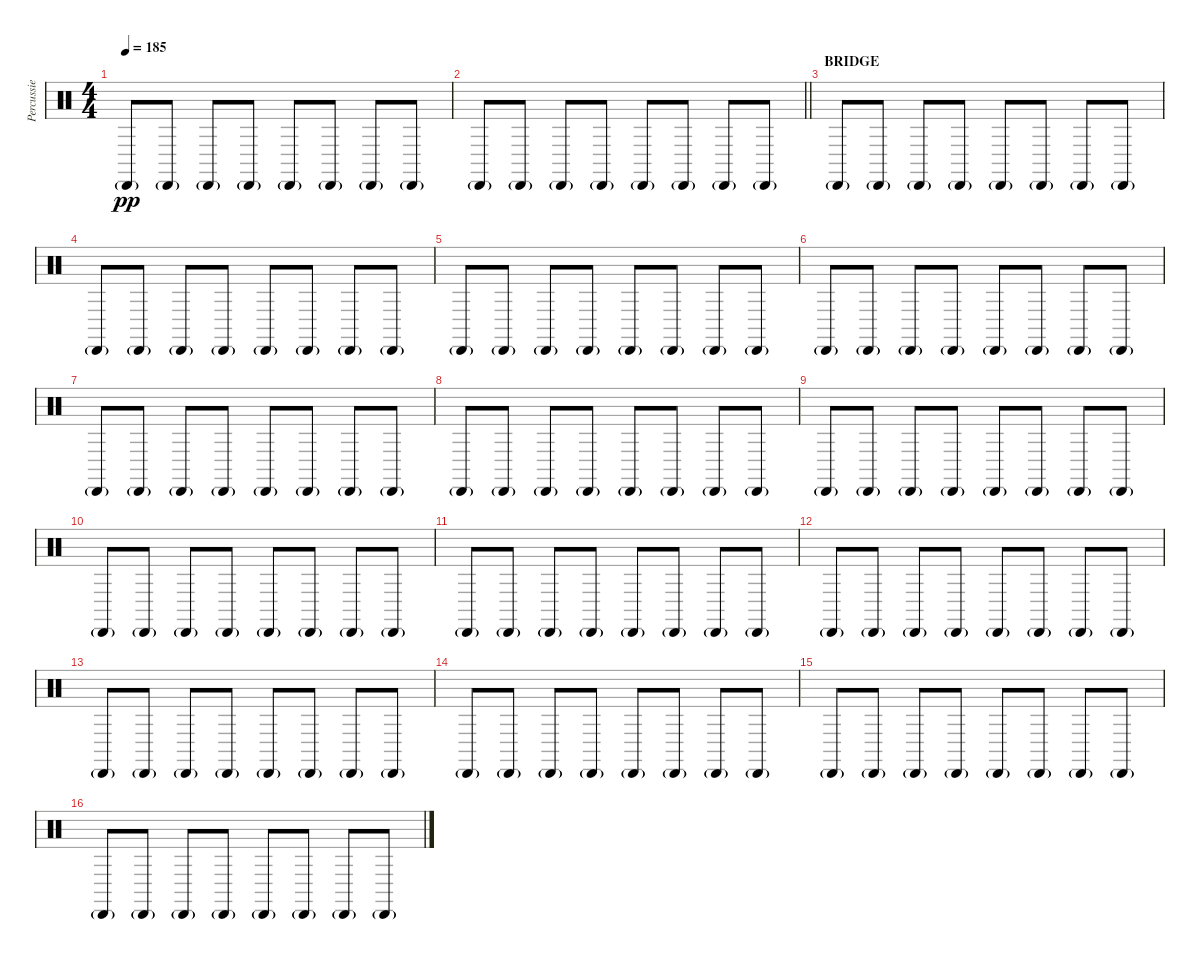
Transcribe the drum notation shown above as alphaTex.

\track ("Percussie" "Percussie") {instrument percussion}
\staff {score}
\articulation defaults
\ts (4 4)
\tempo 185
\clef neutral
\ks c "Cabasa (hit)"{g}.8{dy pp} "Cabasa (hit)"{g}.8 "Cabasa (hit)"{g}.8 "Cabasa (hit)"{g}.8 "Cabasa (hit)"{g}.8 "Cabasa (hit)"{g}.8 "Cabasa (hit)"{g}.8 "Cabasa (hit)"{g}.8
|
\barLineRight lightlight "Cabasa (hit)"{g}.8 "Cabasa (hit)"{g}.8 "Cabasa (hit)"{g}.8 "Cabasa (hit)"{g}.8 "Cabasa (hit)"{g}.8 "Cabasa (hit)"{g}.8 "Cabasa (hit)"{g}.8 "Cabasa (hit)"{g}.8
|
\section ("" "BRIDGE")
"Cabasa (hit)"{g}.8 "Cabasa (hit)"{g}.8 "Cabasa (hit)"{g}.8 "Cabasa (hit)"{g}.8 "Cabasa (hit)"{g}.8 "Cabasa (hit)"{g}.8 "Cabasa (hit)"{g}.8 "Cabasa (hit)"{g}.8 |
"Cabasa (hit)"{g}.8 "Cabasa (hit)"{g}.8 "Cabasa (hit)"{g}.8 "Cabasa (hit)"{g}.8 "Cabasa (hit)"{g}.8 "Cabasa (hit)"{g}.8 "Cabasa (hit)"{g}.8 "Cabasa (hit)"{g}.8 |
"Cabasa (hit)"{g}.8 "Cabasa (hit)"{g}.8 "Cabasa (hit)"{g}.8 "Cabasa (hit)"{g}.8 "Cabasa (hit)"{g}.8 "Cabasa (hit)"{g}.8 "Cabasa (hit)"{g}.8 "Cabasa (hit)"{g}.8 |
"Cabasa (hit)"{g}.8 "Cabasa (hit)"{g}.8 "Cabasa (hit)"{g}.8 "Cabasa (hit)"{g}.8 "Cabasa (hit)"{g}.8 "Cabasa (hit)"{g}.8 "Cabasa (hit)"{g}.8 "Cabasa (hit)"{g}.8 |
"Cabasa (hit)"{g}.8 "Cabasa (hit)"{g}.8 "Cabasa (hit)"{g}.8 "Cabasa (hit)"{g}.8 "Cabasa (hit)"{g}.8 "Cabasa (hit)"{g}.8 "Cabasa (hit)"{g}.8 "Cabasa (hit)"{g}.8 |
"Cabasa (hit)"{g}.8 "Cabasa (hit)"{g}.8 "Cabasa (hit)"{g}.8 "Cabasa (hit)"{g}.8 "Cabasa (hit)"{g}.8 "Cabasa (hit)"{g}.8 "Cabasa (hit)"{g}.8 "Cabasa (hit)"{g}.8 |
"Cabasa (hit)"{g}.8 "Cabasa (hit)"{g}.8 "Cabasa (hit)"{g}.8 "Cabasa (hit)"{g}.8 "Cabasa (hit)"{g}.8 "Cabasa (hit)"{g}.8 "Cabasa (hit)"{g}.8 "Cabasa (hit)"{g}.8 |
"Cabasa (hit)"{g}.8 "Cabasa (hit)"{g}.8 "Cabasa (hit)"{g}.8 "Cabasa (hit)"{g}.8 "Cabasa (hit)"{g}.8 "Cabasa (hit)"{g}.8 "Cabasa (hit)"{g}.8 "Cabasa (hit)"{g}.8 |
"Cabasa (hit)"{g}.8 "Cabasa (hit)"{g}.8 "Cabasa (hit)"{g}.8 "Cabasa (hit)"{g}.8 "Cabasa (hit)"{g}.8 "Cabasa (hit)"{g}.8 "Cabasa (hit)"{g}.8 "Cabasa (hit)"{g}.8 |
"Cabasa (hit)"{g}.8 "Cabasa (hit)"{g}.8 "Cabasa (hit)"{g}.8 "Cabasa (hit)"{g}.8 "Cabasa (hit)"{g}.8 "Cabasa (hit)"{g}.8 "Cabasa (hit)"{g}.8 "Cabasa (hit)"{g}.8 |
"Cabasa (hit)"{g}.8 "Cabasa (hit)"{g}.8 "Cabasa (hit)"{g}.8 "Cabasa (hit)"{g}.8 "Cabasa (hit)"{g}.8 "Cabasa (hit)"{g}.8 "Cabasa (hit)"{g}.8 "Cabasa (hit)"{g}.8 |
"Cabasa (hit)"{g}.8 "Cabasa (hit)"{g}.8 "Cabasa (hit)"{g}.8 "Cabasa (hit)"{g}.8 "Cabasa (hit)"{g}.8 "Cabasa (hit)"{g}.8 "Cabasa (hit)"{g}.8 "Cabasa (hit)"{g}.8 |
"Cabasa (hit)"{g}.8 "Cabasa (hit)"{g}.8 "Cabasa (hit)"{g}.8 "Cabasa (hit)"{g}.8 "Cabasa (hit)"{g}.8 "Cabasa (hit)"{g}.8 "Cabasa (hit)"{g}.8 "Cabasa (hit)"{g}.8 |
"Cabasa (hit)"{g}.8 "Cabasa (hit)"{g}.8 "Cabasa (hit)"{g}.8 "Cabasa (hit)"{g}.8 "Cabasa (hit)"{g}.8 "Cabasa (hit)"{g}.8 "Cabasa (hit)"{g}.8 "Cabasa (hit)"{g}.8
